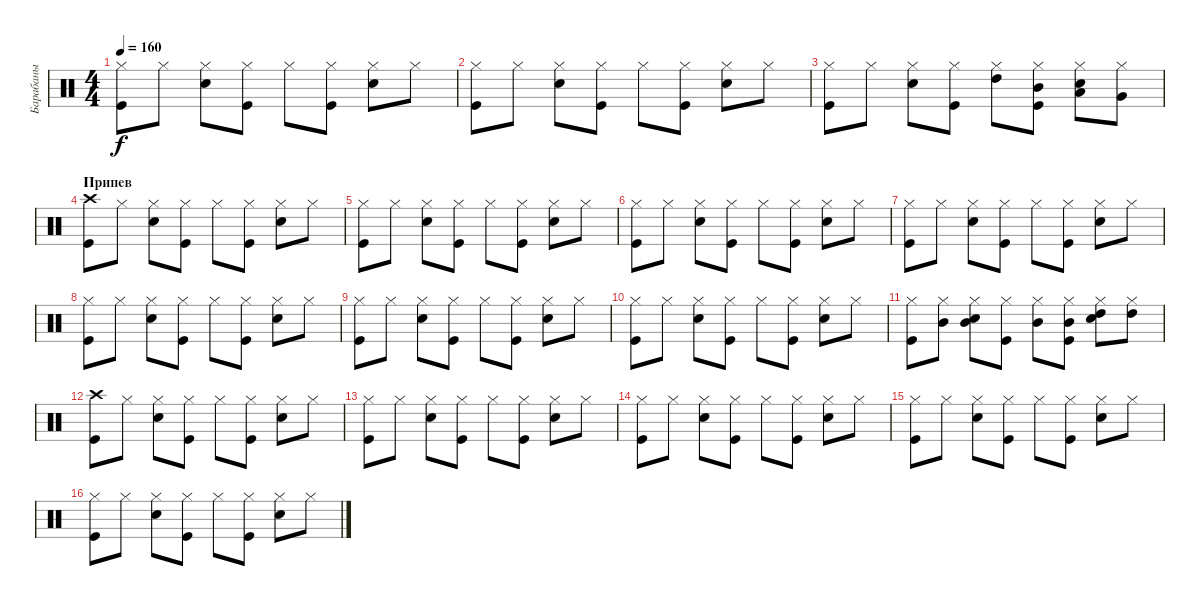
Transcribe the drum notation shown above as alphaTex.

\track ("Барабаны" "Барабаны") {instrument percussion}
\staff {score}
\articulation defaults
\ts (4 4)
\tempo 160
\clef neutral
\ks c
("Kick (hit)" "Hi-Hat (closed)").8{dy f} "Hi-Hat (closed)".8 ("Snare (hit) 2" "Hi-Hat (closed)").8 ("Kick (hit)" "Hi-Hat (closed)").8 "Hi-Hat (closed)".8 ("Kick (hit)" "Hi-Hat (closed)").8 ("Snare (hit) 2" "Hi-Hat (closed)").8 "Hi-Hat (closed)".8 |
("Kick (hit)" "Hi-Hat (closed)").8 "Hi-Hat (closed)".8 ("Snare (hit) 2" "Hi-Hat (closed)").8 ("Kick (hit)" "Hi-Hat (closed)").8 "Hi-Hat (closed)".8 ("Kick (hit)" "Hi-Hat (closed)").8 ("Snare (hit) 2" "Hi-Hat (closed)").8 "Hi-Hat (closed)".8 |
("Kick (hit)" "Hi-Hat (closed)").8 "Hi-Hat (closed)".8 ("Snare (hit) 2" "Hi-Hat (closed)").8 ("Kick (hit)" "Hi-Hat (closed)").8 ("High Tom (hit)" "Hi-Hat (closed)").8 ("Kick (hit)" "Mid Tom (hit)" "Hi-Hat (closed)").8 ("Snare (hit) 2" "Low Tom (hit)" "Hi-Hat (closed)").8 ("Very Low Tom (hit)" "Hi-Hat (closed)").8 |
\section ("" "Припев")
("Kick (hit)" "Crash high (hit)").8 "Hi-Hat (closed)".8 ("Snare (hit) 2" "Hi-Hat (closed)").8 ("Kick (hit)" "Hi-Hat (closed)").8 "Hi-Hat (closed)".8 ("Kick (hit)" "Hi-Hat (closed)").8 ("Snare (hit) 2" "Hi-Hat (closed)").8 "Hi-Hat (closed)".8 |
("Kick (hit)" "Hi-Hat (closed)").8 "Hi-Hat (closed)".8 ("Snare (hit) 2" "Hi-Hat (closed)").8 ("Kick (hit)" "Hi-Hat (closed)").8 "Hi-Hat (closed)".8 ("Kick (hit)" "Hi-Hat (closed)").8 ("Snare (hit) 2" "Hi-Hat (closed)").8 "Hi-Hat (closed)".8 |
("Kick (hit)" "Hi-Hat (closed)").8 "Hi-Hat (closed)".8 ("Snare (hit) 2" "Hi-Hat (closed)").8 ("Kick (hit)" "Hi-Hat (closed)").8 "Hi-Hat (closed)".8 ("Kick (hit)" "Hi-Hat (closed)").8 ("Snare (hit) 2" "Hi-Hat (closed)").8 "Hi-Hat (closed)".8 |
("Kick (hit)" "Hi-Hat (closed)").8 "Hi-Hat (closed)".8 ("Snare (hit) 2" "Hi-Hat (closed)").8 ("Kick (hit)" "Hi-Hat (closed)").8 "Hi-Hat (closed)".8 ("Kick (hit)" "Hi-Hat (closed)").8 ("Snare (hit) 2" "Hi-Hat (closed)").8 "Hi-Hat (closed)".8 |
("Kick (hit)" "Hi-Hat (closed)").8 "Hi-Hat (closed)".8 ("Snare (hit) 2" "Hi-Hat (closed)").8 ("Kick (hit)" "Hi-Hat (closed)").8 "Hi-Hat (closed)".8 ("Kick (hit)" "Hi-Hat (closed)").8 ("Snare (hit) 2" "Hi-Hat (closed)").8 "Hi-Hat (closed)".8 |
("Kick (hit)" "Hi-Hat (closed)").8 "Hi-Hat (closed)".8 ("Snare (hit) 2" "Hi-Hat (closed)").8 ("Kick (hit)" "Hi-Hat (closed)").8 "Hi-Hat (closed)".8 ("Kick (hit)" "Hi-Hat (closed)").8 ("Snare (hit) 2" "Hi-Hat (closed)").8 "Hi-Hat (closed)".8 |
("Kick (hit)" "Hi-Hat (closed)").8 "Hi-Hat (closed)".8 ("Snare (hit) 2" "Hi-Hat (closed)").8 ("Kick (hit)" "Hi-Hat (closed)").8 "Hi-Hat (closed)".8 ("Kick (hit)" "Hi-Hat (closed)").8 ("Snare (hit) 2" "Hi-Hat (closed)").8 "Hi-Hat (closed)".8 |
("Kick (hit)" "Hi-Hat (closed)").8 ("Mid Tom (hit)" "Hi-Hat (closed)").8 ("Snare (hit) 2" "Mid Tom (hit)" "Hi-Hat (closed)").8 ("Kick (hit)" "Hi-Hat (closed)").8 ("Mid Tom (hit)" "Hi-Hat (closed)").8 ("Kick (hit)" "Mid Tom (hit)" "Hi-Hat (closed)").8 ("Snare (hit) 2" "High Tom (hit)" "Hi-Hat (closed)").8 ("High Tom (hit)" "Hi-Hat (closed)").8 |
("Kick (hit)" "Crash high (hit)").8 "Hi-Hat (closed)".8 ("Snare (hit) 2" "Hi-Hat (closed)").8 ("Kick (hit)" "Hi-Hat (closed)").8 "Hi-Hat (closed)".8 ("Kick (hit)" "Hi-Hat (closed)").8 ("Snare (hit) 2" "Hi-Hat (closed)").8 "Hi-Hat (closed)".8 |
("Kick (hit)" "Hi-Hat (closed)").8 "Hi-Hat (closed)".8 ("Snare (hit) 2" "Hi-Hat (closed)").8 ("Kick (hit)" "Hi-Hat (closed)").8 "Hi-Hat (closed)".8 ("Kick (hit)" "Hi-Hat (closed)").8 ("Snare (hit) 2" "Hi-Hat (closed)").8 "Hi-Hat (closed)".8 |
("Kick (hit)" "Hi-Hat (closed)").8 "Hi-Hat (closed)".8 ("Snare (hit) 2" "Hi-Hat (closed)").8 ("Kick (hit)" "Hi-Hat (closed)").8 "Hi-Hat (closed)".8 ("Kick (hit)" "Hi-Hat (closed)").8 ("Snare (hit) 2" "Hi-Hat (closed)").8 "Hi-Hat (closed)".8 |
("Kick (hit)" "Hi-Hat (closed)").8 "Hi-Hat (closed)".8 ("Snare (hit) 2" "Hi-Hat (closed)").8 ("Kick (hit)" "Hi-Hat (closed)").8 "Hi-Hat (closed)".8 ("Kick (hit)" "Hi-Hat (closed)").8 ("Snare (hit) 2" "Hi-Hat (closed)").8 "Hi-Hat (closed)".8 |
("Kick (hit)" "Hi-Hat (closed)").8 "Hi-Hat (closed)".8 ("Snare (hit) 2" "Hi-Hat (closed)").8 ("Kick (hit)" "Hi-Hat (closed)").8 "Hi-Hat (closed)".8 ("Kick (hit)" "Hi-Hat (closed)").8 ("Snare (hit) 2" "Hi-Hat (closed)").8 "Hi-Hat (closed)".8
